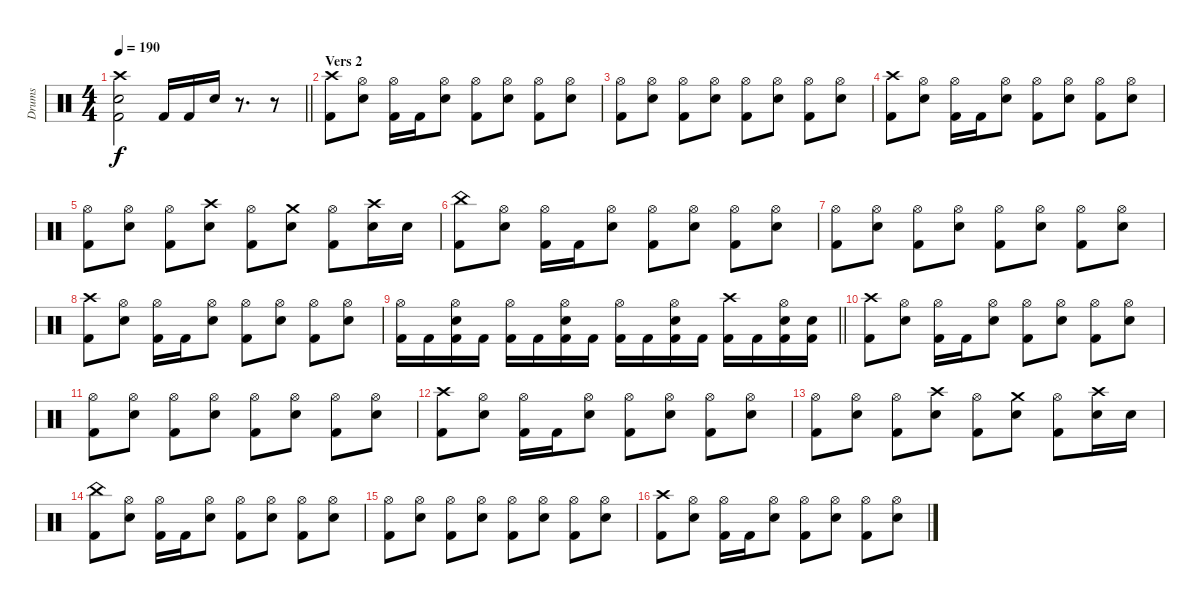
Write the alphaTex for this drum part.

\track ("Drums" "Drums") {instrument percussion}
\staff {score}
\articulation defaults
\ts (4 4)
\tempo 190
\clef neutral
\barLineRight lightlight
\ks c
("Crash high (hit)" "Snare (hit) 2" "Kick (hit) 2").2{dy f} "Kick (hit) 2".16 "Kick (hit) 2".16 "Snare (hit) 2".16 r.8{d} r.8 |
\section ("" "Vers 2")
("Crash high (hit)" "Kick (hit) 2").8 ("Hi-Hat (open)" "Snare (hit) 2").8 ("Hi-Hat (open)" "Kick (hit) 2").16 "Kick (hit) 2".16 ("Hi-Hat (open)" "Snare (hit) 2").8 ("Hi-Hat (open)" "Kick (hit) 2").8 ("Hi-Hat (open)" "Snare (hit) 2").8 ("Hi-Hat (open)" "Kick (hit) 2").8 ("Hi-Hat (open)" "Snare (hit) 2").8 |
("Hi-Hat (open)" "Kick (hit) 2").8 ("Hi-Hat (open)" "Snare (hit) 2").8 ("Hi-Hat (open)" "Kick (hit) 2").8 ("Hi-Hat (open)" "Snare (hit) 2").8 ("Hi-Hat (open)" "Kick (hit) 2").8 ("Hi-Hat (open)" "Snare (hit) 2").8 ("Hi-Hat (open)" "Kick (hit) 2").8 ("Hi-Hat (open)" "Snare (hit) 2").8 |
("Crash high (hit)" "Kick (hit) 2").8 ("Hi-Hat (open)" "Snare (hit) 2").8 ("Hi-Hat (open)" "Kick (hit) 2").16 "Kick (hit) 2".16 ("Hi-Hat (open)" "Snare (hit) 2").8 ("Hi-Hat (open)" "Kick (hit) 2").8 ("Hi-Hat (open)" "Snare (hit) 2").8 ("Hi-Hat (open)" "Kick (hit) 2").8 ("Hi-Hat (open)" "Snare (hit) 2").8 |
("Hi-Hat (open)" "Kick (hit) 2").8 ("Hi-Hat (open)" "Snare (hit) 2").8 ("Hi-Hat (open)" "Kick (hit) 2").8 ("Crash high (hit)" "Snare (hit) 2").8 ("Hi-Hat (open)" "Kick (hit) 2").8 ("Crash medium (hit)" "Snare (hit) 2").8 ("Hi-Hat (open)" "Kick (hit) 2").8 ("Crash high (hit)" "Snare (hit) 2").16 "Snare (hit) 2".16 |
("China (hit)" "Kick (hit) 2").8 ("Hi-Hat (open)" "Snare (hit) 2").8 ("Hi-Hat (open)" "Kick (hit) 2").16 "Kick (hit) 2".16 ("Hi-Hat (open)" "Snare (hit) 2").8 ("Hi-Hat (open)" "Kick (hit) 2").8 ("Hi-Hat (open)" "Snare (hit) 2").8 ("Hi-Hat (open)" "Kick (hit) 2").8 ("Hi-Hat (open)" "Snare (hit) 2").8 |
("Hi-Hat (open)" "Kick (hit) 2").8 ("Hi-Hat (open)" "Snare (hit) 2").8 ("Hi-Hat (open)" "Kick (hit) 2").8 ("Hi-Hat (open)" "Snare (hit) 2").8 ("Hi-Hat (open)" "Kick (hit) 2").8 ("Hi-Hat (open)" "Snare (hit) 2").8 ("Hi-Hat (open)" "Kick (hit) 2").8 ("Hi-Hat (open)" "Snare (hit) 2").8 |
("Crash high (hit)" "Kick (hit) 2").8 ("Hi-Hat (open)" "Snare (hit) 2").8 ("Hi-Hat (open)" "Kick (hit) 2").16 "Kick (hit) 2".16 ("Hi-Hat (open)" "Snare (hit) 2").8 ("Hi-Hat (open)" "Kick (hit) 2").8 ("Hi-Hat (open)" "Snare (hit) 2").8 ("Hi-Hat (open)" "Kick (hit) 2").8 ("Hi-Hat (open)" "Snare (hit) 2").8 |
\barLineRight lightlight
("Hi-Hat (open)" "Kick (hit) 2").16 "Kick (hit) 2".16 ("Hi-Hat (open)" "Snare (hit) 2" "Kick (hit) 2").16 "Kick (hit) 2".16 ("Hi-Hat (open)" "Kick (hit) 2").16 "Kick (hit) 2".16 ("Hi-Hat (open)" "Snare (hit) 2" "Kick (hit) 2").16 "Kick (hit) 2".16 ("Hi-Hat (open)" "Kick (hit) 2").16 "Kick (hit) 2".16 ("Hi-Hat (open)" "Snare (hit) 2" "Kick (hit) 2").16 "Kick (hit) 2".16 ("Crash high (hit)" "Kick (hit) 2").16 "Kick (hit) 2".16 ("Hi-Hat (open)" "Snare (hit) 2" "Kick (hit) 2").16 ("Snare (hit) 2" "Kick (hit) 2").16 |
("Crash high (hit)" "Kick (hit) 2").8 ("Hi-Hat (open)" "Snare (hit) 2").8 ("Hi-Hat (open)" "Kick (hit) 2").16 "Kick (hit) 2".16 ("Hi-Hat (open)" "Snare (hit) 2").8 ("Hi-Hat (open)" "Kick (hit) 2").8 ("Hi-Hat (open)" "Snare (hit) 2").8 ("Hi-Hat (open)" "Kick (hit) 2").8 ("Hi-Hat (open)" "Snare (hit) 2").8 |
("Hi-Hat (open)" "Kick (hit) 2").8 ("Hi-Hat (open)" "Snare (hit) 2").8 ("Hi-Hat (open)" "Kick (hit) 2").8 ("Hi-Hat (open)" "Snare (hit) 2").8 ("Hi-Hat (open)" "Kick (hit) 2").8 ("Hi-Hat (open)" "Snare (hit) 2").8 ("Hi-Hat (open)" "Kick (hit) 2").8 ("Hi-Hat (open)" "Snare (hit) 2").8 |
("Crash high (hit)" "Kick (hit) 2").8 ("Hi-Hat (open)" "Snare (hit) 2").8 ("Hi-Hat (open)" "Kick (hit) 2").16 "Kick (hit) 2".16 ("Hi-Hat (open)" "Snare (hit) 2").8 ("Hi-Hat (open)" "Kick (hit) 2").8 ("Hi-Hat (open)" "Snare (hit) 2").8 ("Hi-Hat (open)" "Kick (hit) 2").8 ("Hi-Hat (open)" "Snare (hit) 2").8 |
("Hi-Hat (open)" "Kick (hit) 2").8 ("Hi-Hat (open)" "Snare (hit) 2").8 ("Hi-Hat (open)" "Kick (hit) 2").8 ("Crash high (hit)" "Snare (hit) 2").8 ("Hi-Hat (open)" "Kick (hit) 2").8 ("Crash medium (hit)" "Snare (hit) 2").8 ("Hi-Hat (open)" "Kick (hit) 2").8 ("Crash high (hit)" "Snare (hit) 2").16 "Snare (hit) 2".16 |
("China (hit)" "Kick (hit) 2").8 ("Hi-Hat (open)" "Snare (hit) 2").8 ("Hi-Hat (open)" "Kick (hit) 2").16 "Kick (hit) 2".16 ("Hi-Hat (open)" "Snare (hit) 2").8 ("Hi-Hat (open)" "Kick (hit) 2").8 ("Hi-Hat (open)" "Snare (hit) 2").8 ("Hi-Hat (open)" "Kick (hit) 2").8 ("Hi-Hat (open)" "Snare (hit) 2").8 |
("Hi-Hat (open)" "Kick (hit) 2").8 ("Hi-Hat (open)" "Snare (hit) 2").8 ("Hi-Hat (open)" "Kick (hit) 2").8 ("Hi-Hat (open)" "Snare (hit) 2").8 ("Hi-Hat (open)" "Kick (hit) 2").8 ("Hi-Hat (open)" "Snare (hit) 2").8 ("Hi-Hat (open)" "Kick (hit) 2").8 ("Hi-Hat (open)" "Snare (hit) 2").8 |
("Crash high (hit)" "Kick (hit) 2").8 ("Hi-Hat (open)" "Snare (hit) 2").8 ("Hi-Hat (open)" "Kick (hit) 2").16 "Kick (hit) 2".16 ("Hi-Hat (open)" "Snare (hit) 2").8 ("Hi-Hat (open)" "Kick (hit) 2").8 ("Hi-Hat (open)" "Snare (hit) 2").8 ("Hi-Hat (open)" "Kick (hit) 2").8 ("Hi-Hat (open)" "Snare (hit) 2").8
